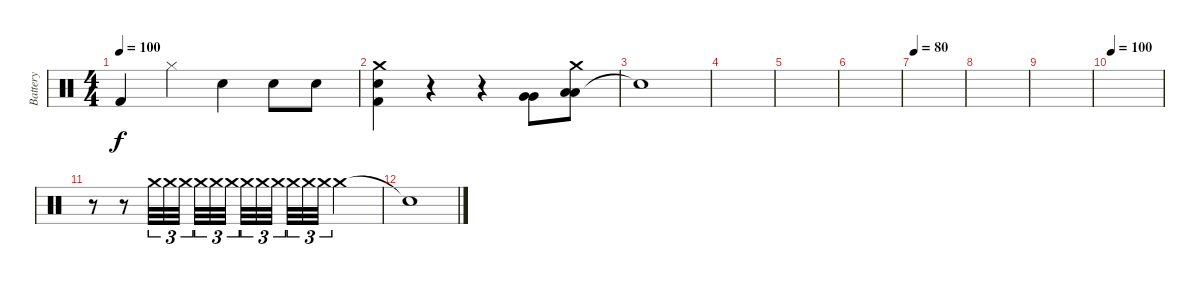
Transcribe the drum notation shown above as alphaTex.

\track ("Battery" "Battery") {instrument percussion}
\staff {score}
\articulation defaults
\ts (4 4)
\tempo 100
\clef neutral
\ks c "Kick (hit) 2".4{dy f} "Hi-Hat (closed)".4 "Snare (hit) 2".4 "Snare (hit) 2".8 "Snare (hit) 2".8
|
("Kick (hit) 2" "Snare (hit) 2" "Crash medium (hit)").4 r.4 r.4 ("Very Low Tom (hit)" "Very Low Tom (hit)").8 ("Low Floor Tom (hit)" "Low Floor Tom (hit)" "Crash medium (hit)").8 |
"Snare (hit)"{t}.1 |
|
|
|
\tempo 80
|
|
|
\tempo 100
|
r.8 r.8 "Crash medium (hit)".32{tu (3 2)} "Crash medium (hit)".32{tu (3 2)} "Crash medium (hit)".32{tu (3 2)} "Crash medium (hit)".32{tu (3 2)} "Crash medium (hit)".32{tu (3 2)} "Crash medium (hit)".32{tu (3 2)} "Crash medium (hit)".32{tu (3 2)} "Crash medium (hit)".32{tu (3 2)} "Crash medium (hit)".32{tu (3 2)} "Crash medium (hit)".32{tu (3 2)} "Crash medium (hit)".32{tu (3 2)} "Crash medium (hit)".32{tu (3 2)} "Crash medium (hit)".2 |
"Snare (hit)"{t}.1
